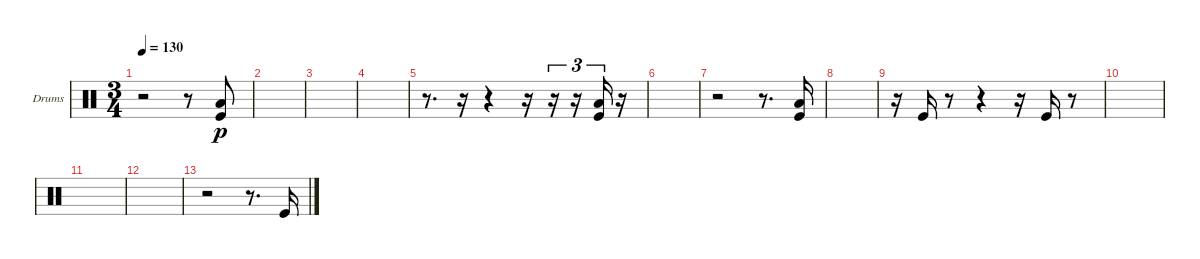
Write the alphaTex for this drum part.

\bracketExtendMode groupsimilarinstruments
\firstSystemTrackNameOrientation horizontal
\otherSystemsTrackNameOrientation horizontal
\track ("Kick" "Drums") {instrument percussion}
\staff {score}
\articulation defaults
\ts (3 4)
\tempo 130
\clef neutral
\ks c
r.2{dy p} r.8 ("Kick (hit)" "Low Tom (hit)").8 |
|
|
|
r.8{d} r.16 r.4 r.16 r.16{tu (3 2)} r.16{tu (3 2)} ("Kick (hit)" "Low Tom (hit)").16{tu (3 2)} r.16 |
|
r.2 r.8{d} ("Kick (hit)" "Low Tom (hit)").16 |
|
r.16 "Kick (hit)".16 r.8 r.4 r.16 "Kick (hit)".16 r.8 |
|
|
|
r.2 r.8{d} "Kick (hit)".16
